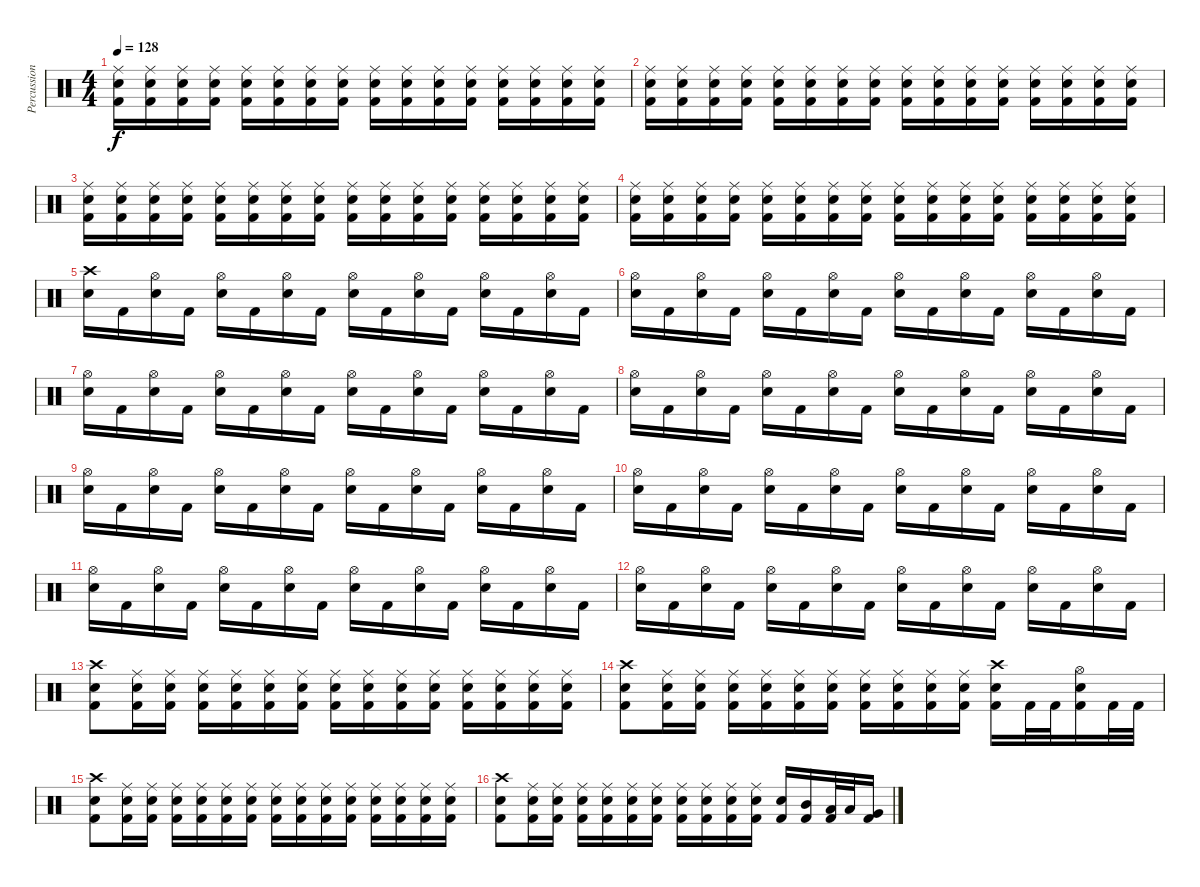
\track ("Percussion" "Percussion") {instrument percussion}
\staff {score}
\articulation defaults
\ts (4 4)
\tempo 128
\clef neutral
\ks c
("Ride (middle)" "Electric Snare (hit)" "Kick (hit) 2").16{dy f} ("Ride (middle)" "Electric Snare (hit)" "Kick (hit) 2").16 ("Ride (middle)" "Electric Snare (hit)" "Kick (hit) 2").16 ("Ride (middle)" "Electric Snare (hit)" "Kick (hit) 2").16 ("Ride (middle)" "Electric Snare (hit)" "Kick (hit) 2").16 ("Ride (middle)" "Electric Snare (hit)" "Kick (hit) 2").16 ("Ride (middle)" "Electric Snare (hit)" "Kick (hit) 2").16 ("Ride (middle)" "Electric Snare (hit)" "Kick (hit) 2").16 ("Ride (middle)" "Electric Snare (hit)" "Kick (hit) 2").16 ("Ride (middle)" "Electric Snare (hit)" "Kick (hit) 2").16 ("Ride (middle)" "Electric Snare (hit)" "Kick (hit) 2").16 ("Ride (middle)" "Electric Snare (hit)" "Kick (hit) 2").16 ("Ride (middle)" "Electric Snare (hit)" "Kick (hit) 2").16 ("Ride (middle)" "Electric Snare (hit)" "Kick (hit) 2").16 ("Ride (middle)" "Electric Snare (hit)" "Kick (hit) 2").16 ("Ride (middle)" "Electric Snare (hit)" "Kick (hit) 2").16 |
("Ride (middle)" "Electric Snare (hit)" "Kick (hit) 2").16 ("Ride (middle)" "Electric Snare (hit)" "Kick (hit) 2").16 ("Ride (middle)" "Electric Snare (hit)" "Kick (hit) 2").16 ("Ride (middle)" "Electric Snare (hit)" "Kick (hit) 2").16 ("Ride (middle)" "Electric Snare (hit)" "Kick (hit) 2").16 ("Ride (middle)" "Electric Snare (hit)" "Kick (hit) 2").16 ("Ride (middle)" "Electric Snare (hit)" "Kick (hit) 2").16 ("Ride (middle)" "Electric Snare (hit)" "Kick (hit) 2").16 ("Ride (middle)" "Electric Snare (hit)" "Kick (hit) 2").16 ("Ride (middle)" "Electric Snare (hit)" "Kick (hit) 2").16 ("Ride (middle)" "Electric Snare (hit)" "Kick (hit) 2").16 ("Ride (middle)" "Electric Snare (hit)" "Kick (hit) 2").16 ("Ride (middle)" "Electric Snare (hit)" "Kick (hit) 2").16 ("Ride (middle)" "Electric Snare (hit)" "Kick (hit) 2").16 ("Ride (middle)" "Electric Snare (hit)" "Kick (hit) 2").16 ("Ride (middle)" "Electric Snare (hit)" "Kick (hit) 2").16 |
("Ride (middle)" "Electric Snare (hit)" "Kick (hit) 2").16 ("Ride (middle)" "Electric Snare (hit)" "Kick (hit) 2").16 ("Ride (middle)" "Electric Snare (hit)" "Kick (hit) 2").16 ("Ride (middle)" "Electric Snare (hit)" "Kick (hit) 2").16 ("Ride (middle)" "Electric Snare (hit)" "Kick (hit) 2").16 ("Ride (middle)" "Electric Snare (hit)" "Kick (hit) 2").16 ("Ride (middle)" "Electric Snare (hit)" "Kick (hit) 2").16 ("Ride (middle)" "Electric Snare (hit)" "Kick (hit) 2").16 ("Ride (middle)" "Electric Snare (hit)" "Kick (hit) 2").16 ("Ride (middle)" "Electric Snare (hit)" "Kick (hit) 2").16 ("Ride (middle)" "Electric Snare (hit)" "Kick (hit) 2").16 ("Ride (middle)" "Electric Snare (hit)" "Kick (hit) 2").16 ("Ride (middle)" "Electric Snare (hit)" "Kick (hit) 2").16 ("Ride (middle)" "Electric Snare (hit)" "Kick (hit) 2").16 ("Ride (middle)" "Electric Snare (hit)" "Kick (hit) 2").16 ("Ride (middle)" "Electric Snare (hit)" "Kick (hit) 2").16 |
("Ride (middle)" "Electric Snare (hit)" "Kick (hit) 2").16 ("Ride (middle)" "Electric Snare (hit)" "Kick (hit) 2").16 ("Ride (middle)" "Electric Snare (hit)" "Kick (hit) 2").16 ("Ride (middle)" "Electric Snare (hit)" "Kick (hit) 2").16 ("Ride (middle)" "Electric Snare (hit)" "Kick (hit) 2").16 ("Ride (middle)" "Electric Snare (hit)" "Kick (hit) 2").16 ("Ride (middle)" "Electric Snare (hit)" "Kick (hit) 2").16 ("Ride (middle)" "Electric Snare (hit)" "Kick (hit) 2").16 ("Ride (middle)" "Electric Snare (hit)" "Kick (hit) 2").16 ("Ride (middle)" "Electric Snare (hit)" "Kick (hit) 2").16 ("Ride (middle)" "Electric Snare (hit)" "Kick (hit) 2").16 ("Ride (middle)" "Electric Snare (hit)" "Kick (hit) 2").16 ("Ride (middle)" "Electric Snare (hit)" "Kick (hit) 2").16 ("Ride (middle)" "Electric Snare (hit)" "Kick (hit) 2").16 ("Ride (middle)" "Electric Snare (hit)" "Kick (hit) 2").16 ("Ride (middle)" "Electric Snare (hit)" "Kick (hit) 2").16 |
("Crash high (hit)" "Electric Snare (hit)").16 "Kick (hit) 2".16 ("Hi-Hat (open)" "Electric Snare (hit)").16 "Kick (hit) 2".16 ("Hi-Hat (open)" "Electric Snare (hit)").16 "Kick (hit) 2".16 ("Hi-Hat (open)" "Electric Snare (hit)").16 "Kick (hit) 2".16 ("Hi-Hat (open)" "Electric Snare (hit)").16 "Kick (hit) 2".16 ("Hi-Hat (open)" "Electric Snare (hit)").16 "Kick (hit) 2".16 ("Hi-Hat (open)" "Electric Snare (hit)").16 "Kick (hit) 2".16 ("Hi-Hat (open)" "Electric Snare (hit)").16 "Kick (hit) 2".16 |
("Hi-Hat (open)" "Electric Snare (hit)").16 "Kick (hit) 2".16 ("Hi-Hat (open)" "Electric Snare (hit)").16 "Kick (hit) 2".16 ("Hi-Hat (open)" "Electric Snare (hit)").16 "Kick (hit) 2".16 ("Hi-Hat (open)" "Electric Snare (hit)").16 "Kick (hit) 2".16 ("Hi-Hat (open)" "Electric Snare (hit)").16 "Kick (hit) 2".16 ("Hi-Hat (open)" "Electric Snare (hit)").16 "Kick (hit) 2".16 ("Hi-Hat (open)" "Electric Snare (hit)").16 "Kick (hit) 2".16 ("Hi-Hat (open)" "Electric Snare (hit)").16 "Kick (hit) 2".16 |
("Hi-Hat (open)" "Electric Snare (hit)").16 "Kick (hit) 2".16 ("Hi-Hat (open)" "Electric Snare (hit)").16 "Kick (hit) 2".16 ("Hi-Hat (open)" "Electric Snare (hit)").16 "Kick (hit) 2".16 ("Hi-Hat (open)" "Electric Snare (hit)").16 "Kick (hit) 2".16 ("Hi-Hat (open)" "Electric Snare (hit)").16 "Kick (hit) 2".16 ("Hi-Hat (open)" "Electric Snare (hit)").16 "Kick (hit) 2".16 ("Hi-Hat (open)" "Electric Snare (hit)").16 "Kick (hit) 2".16 ("Hi-Hat (open)" "Electric Snare (hit)").16 "Kick (hit) 2".16 |
("Hi-Hat (open)" "Electric Snare (hit)").16 "Kick (hit) 2".16 ("Hi-Hat (open)" "Electric Snare (hit)").16 "Kick (hit) 2".16 ("Hi-Hat (open)" "Electric Snare (hit)").16 "Kick (hit) 2".16 ("Hi-Hat (open)" "Electric Snare (hit)").16 "Kick (hit) 2".16 ("Hi-Hat (open)" "Electric Snare (hit)").16 "Kick (hit) 2".16 ("Hi-Hat (open)" "Electric Snare (hit)").16 "Kick (hit) 2".16 ("Hi-Hat (open)" "Electric Snare (hit)").16 "Kick (hit) 2".16 ("Hi-Hat (open)" "Electric Snare (hit)").16 "Kick (hit) 2".16 |
("Hi-Hat (open)" "Electric Snare (hit)").16 "Kick (hit) 2".16 ("Hi-Hat (open)" "Electric Snare (hit)").16 "Kick (hit) 2".16 ("Hi-Hat (open)" "Electric Snare (hit)").16 "Kick (hit) 2".16 ("Hi-Hat (open)" "Electric Snare (hit)").16 "Kick (hit) 2".16 ("Hi-Hat (open)" "Electric Snare (hit)").16 "Kick (hit) 2".16 ("Hi-Hat (open)" "Electric Snare (hit)").16 "Kick (hit) 2".16 ("Hi-Hat (open)" "Electric Snare (hit)").16 "Kick (hit) 2".16 ("Hi-Hat (open)" "Electric Snare (hit)").16 "Kick (hit) 2".16 |
("Hi-Hat (open)" "Electric Snare (hit)").16 "Kick (hit) 2".16 ("Hi-Hat (open)" "Electric Snare (hit)").16 "Kick (hit) 2".16 ("Hi-Hat (open)" "Electric Snare (hit)").16 "Kick (hit) 2".16 ("Hi-Hat (open)" "Electric Snare (hit)").16 "Kick (hit) 2".16 ("Hi-Hat (open)" "Electric Snare (hit)").16 "Kick (hit) 2".16 ("Hi-Hat (open)" "Electric Snare (hit)").16 "Kick (hit) 2".16 ("Hi-Hat (open)" "Electric Snare (hit)").16 "Kick (hit) 2".16 ("Hi-Hat (open)" "Electric Snare (hit)").16 "Kick (hit) 2".16 |
("Hi-Hat (open)" "Electric Snare (hit)").16 "Kick (hit) 2".16 ("Hi-Hat (open)" "Electric Snare (hit)").16 "Kick (hit) 2".16 ("Hi-Hat (open)" "Electric Snare (hit)").16 "Kick (hit) 2".16 ("Hi-Hat (open)" "Electric Snare (hit)").16 "Kick (hit) 2".16 ("Hi-Hat (open)" "Electric Snare (hit)").16 "Kick (hit) 2".16 ("Hi-Hat (open)" "Electric Snare (hit)").16 "Kick (hit) 2".16 ("Hi-Hat (open)" "Electric Snare (hit)").16 "Kick (hit) 2".16 ("Hi-Hat (open)" "Electric Snare (hit)").16 "Kick (hit) 2".16 |
("Hi-Hat (open)" "Electric Snare (hit)").16 "Kick (hit) 2".16 ("Hi-Hat (open)" "Electric Snare (hit)").16 "Kick (hit) 2".16 ("Hi-Hat (open)" "Electric Snare (hit)").16 "Kick (hit) 2".16 ("Hi-Hat (open)" "Electric Snare (hit)").16 "Kick (hit) 2".16 ("Hi-Hat (open)" "Electric Snare (hit)").16 "Kick (hit) 2".16 ("Hi-Hat (open)" "Electric Snare (hit)").16 "Kick (hit) 2".16 ("Hi-Hat (open)" "Electric Snare (hit)").16 "Kick (hit) 2".16 ("Hi-Hat (open)" "Electric Snare (hit)").16 "Kick (hit) 2".16 |
("Crash high (hit)" "Electric Snare (hit)" "Kick (hit) 2").8 ("Ride (middle)" "Electric Snare (hit)" "Kick (hit) 2").16 ("Ride (middle)" "Electric Snare (hit)" "Kick (hit) 2").16 ("Ride (middle)" "Electric Snare (hit)" "Kick (hit) 2").16 ("Ride (middle)" "Electric Snare (hit)" "Kick (hit) 2").16 ("Ride (middle)" "Electric Snare (hit)" "Kick (hit) 2").16 ("Ride (middle)" "Electric Snare (hit)" "Kick (hit) 2").16 ("Ride (middle)" "Electric Snare (hit)" "Kick (hit) 2").16 ("Ride (middle)" "Electric Snare (hit)" "Kick (hit) 2").16 ("Ride (middle)" "Electric Snare (hit)" "Kick (hit) 2").16 ("Ride (middle)" "Electric Snare (hit)" "Kick (hit) 2").16 ("Ride (middle)" "Electric Snare (hit)" "Kick (hit) 2").16 ("Ride (middle)" "Electric Snare (hit)" "Kick (hit) 2").16 ("Ride (middle)" "Electric Snare (hit)" "Kick (hit) 2").16 ("Ride (middle)" "Electric Snare (hit)" "Kick (hit) 2").16 |
("Crash high (hit)" "Electric Snare (hit)" "Kick (hit) 2").8 ("Ride (middle)" "Electric Snare (hit)" "Kick (hit) 2").16 ("Ride (middle)" "Electric Snare (hit)" "Kick (hit) 2").16 ("Ride (middle)" "Electric Snare (hit)" "Kick (hit) 2").16 ("Ride (middle)" "Electric Snare (hit)" "Kick (hit) 2").16 ("Ride (middle)" "Electric Snare (hit)" "Kick (hit) 2").16 ("Ride (middle)" "Electric Snare (hit)" "Kick (hit) 2").16 ("Ride (middle)" "Electric Snare (hit)" "Kick (hit) 2").16 ("Ride (middle)" "Electric Snare (hit)" "Kick (hit) 2").16 ("Ride (middle)" "Electric Snare (hit)" "Kick (hit) 2").16 ("Ride (middle)" "Electric Snare (hit)" "Kick (hit) 2").16 ("Crash high (hit)" "Electric Snare (hit)" "Kick (hit) 2").16 "Kick (hit) 2".32 "Kick (hit) 2".32 ("Hi-Hat (open)" "Electric Snare (hit)" "Kick (hit) 2").16 "Kick (hit) 2".32 "Kick (hit) 2".32 |
("Crash high (hit)" "Electric Snare (hit)" "Kick (hit) 2").8 ("Ride (middle)" "Electric Snare (hit)" "Kick (hit) 2").16 ("Ride (middle)" "Electric Snare (hit)" "Kick (hit) 2").16 ("Ride (middle)" "Electric Snare (hit)" "Kick (hit) 2").16 ("Ride (middle)" "Electric Snare (hit)" "Kick (hit) 2").16 ("Ride (middle)" "Electric Snare (hit)" "Kick (hit) 2").16 ("Ride (middle)" "Electric Snare (hit)" "Kick (hit) 2").16 ("Ride (middle)" "Electric Snare (hit)" "Kick (hit) 2").16 ("Ride (middle)" "Electric Snare (hit)" "Kick (hit) 2").16 ("Ride (middle)" "Electric Snare (hit)" "Kick (hit) 2").16 ("Ride (middle)" "Electric Snare (hit)" "Kick (hit) 2").16 ("Ride (middle)" "Electric Snare (hit)" "Kick (hit) 2").16 ("Ride (middle)" "Electric Snare (hit)" "Kick (hit) 2").16 ("Ride (middle)" "Electric Snare (hit)" "Kick (hit) 2").16 ("Ride (middle)" "Electric Snare (hit)" "Kick (hit) 2").16 |
("Crash high (hit)" "Electric Snare (hit)" "Kick (hit) 2").8 ("Ride (middle)" "Electric Snare (hit)" "Kick (hit) 2").16 ("Ride (middle)" "Electric Snare (hit)" "Kick (hit) 2").16 ("Ride (middle)" "Electric Snare (hit)" "Kick (hit) 2").16 ("Ride (middle)" "Electric Snare (hit)" "Kick (hit) 2").16 ("Ride (middle)" "Electric Snare (hit)" "Kick (hit) 2").16 ("Ride (middle)" "Electric Snare (hit)" "Kick (hit) 2").16 ("Ride (middle)" "Electric Snare (hit)" "Kick (hit) 2").16 ("Ride (middle)" "Electric Snare (hit)" "Kick (hit) 2").16 ("Ride (middle)" "Electric Snare (hit)" "Kick (hit) 2").16 ("Ride (middle)" "Electric Snare (hit)" "Kick (hit) 2").16 ("Electric Snare (hit)" "Kick (hit) 2").16 ("Mid Tom (hit)" "Kick (hit) 2").16 ("Low Tom (hit)" "Kick (hit) 2").32 "Low Tom (hit)".32 ("Very Low Tom (hit)" "Kick (hit) 2").16
